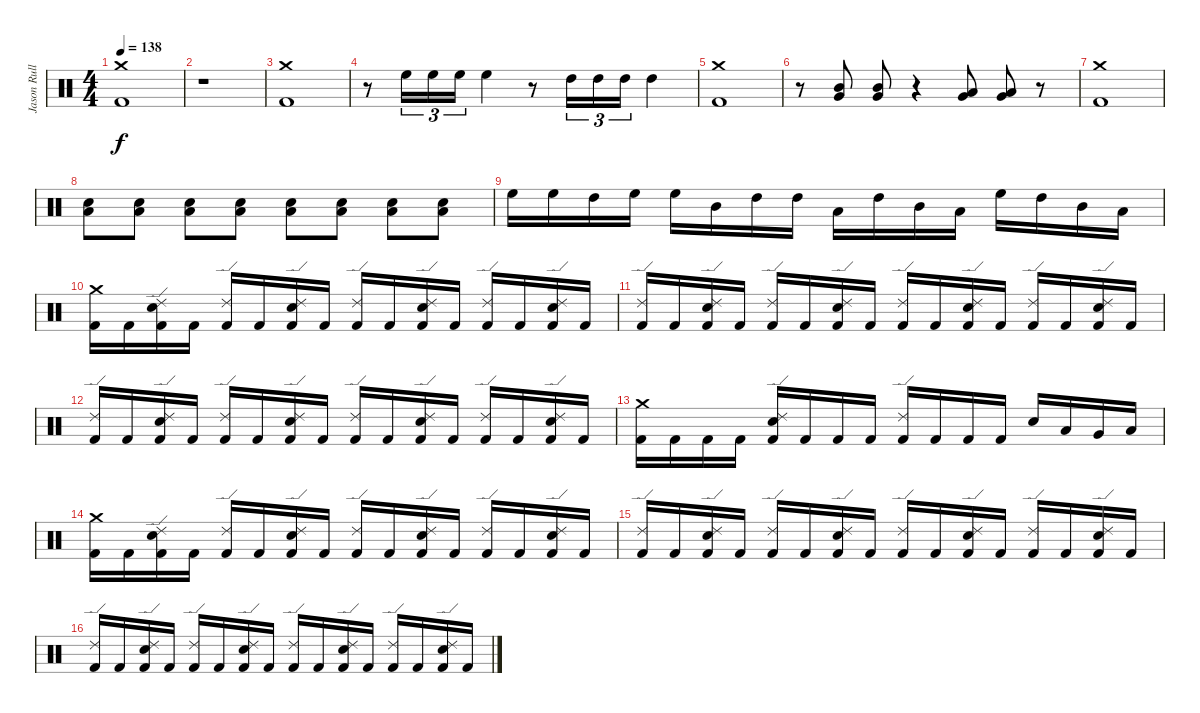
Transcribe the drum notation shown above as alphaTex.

\track ("Jason Rullo" "Jason Rull") {instrument percussion}
\staff {score}
\articulation defaults
\ts (4 4)
\tempo 138
\clef neutral
\ks c
("Crash medium (hit)" "Kick (hit) 2").1{dy f} |
r.1 |
("Crash medium (hit)" "Kick (hit) 2").1 |
r.8 "High Floor Tom (hit)".16{tu (3 2)} "High Floor Tom (hit)".16{tu (3 2)} "High Floor Tom (hit)".16{tu (3 2)} "High Floor Tom (hit)".4 r.8 "High Tom (hit)".16{tu (3 2)} "High Tom (hit)".16{tu (3 2)} "High Tom (hit)".16{tu (3 2)} "High Tom (hit)".4 |
("Crash medium (hit)" "Kick (hit) 2").1 |
r.8 ("Very Low Tom (hit)" "Mid Tom (hit)").8 ("Very Low Tom (hit)" "Mid Tom (hit)").8 r.4 ("Low Floor Tom (hit)" "Very Low Tom (hit)").8 ("Low Floor Tom (hit)" "Very Low Tom (hit)").8 r.8 |
("Crash medium (hit)" "Kick (hit) 2").1 |
("Low Tom (hit)" "Electric Snare (hit)").8{volume 4} ("Low Tom (hit)" "Electric Snare (hit)").8{volume 5} ("Low Tom (hit)" "Electric Snare (hit)").8{volume 7} ("Low Tom (hit)" "Electric Snare (hit)").8{volume 8} ("Low Tom (hit)" "Electric Snare (hit)").8{volume 10} ("Low Tom (hit)" "Electric Snare (hit)").8{volume 11} ("Low Tom (hit)" "Electric Snare (hit)").8{volume 13} ("Low Tom (hit)" "Electric Snare (hit)").8{volume 14} |
"High Floor Tom (hit)".16{volume 16} "High Floor Tom (hit)".16 "High Tom (hit)".16 "High Floor Tom (hit)".16 "High Floor Tom (hit)".16 "Mid Tom (hit)".16 "High Tom (hit)".16 "High Tom (hit)".16 "Low Tom (hit)".16 "High Tom (hit)".16 "Mid Tom (hit)".16 "Low Tom (hit)".16 "High Floor Tom (hit)".16 "High Tom (hit)".16 "Mid Tom (hit)".16 "Low Tom (hit)".16 |
("Crash medium (hit)" "Kick (hit) 2").16 "Kick (hit) 2".16 ("Ride (edge) 2" "Electric Snare (hit)" "Kick (hit) 2").16 "Kick (hit) 2".16 ("Ride (edge) 2" "Kick (hit) 2").16 "Kick (hit) 2".16 ("Ride (edge) 2" "Electric Snare (hit)" "Kick (hit) 2").16 "Kick (hit) 2".16 ("Ride (edge) 2" "Kick (hit) 2").16 "Kick (hit) 2".16 ("Ride (edge) 2" "Electric Snare (hit)" "Kick (hit) 2").16 "Kick (hit) 2".16 ("Ride (edge) 2" "Kick (hit) 2").16 "Kick (hit) 2".16 ("Ride (edge) 2" "Electric Snare (hit)" "Kick (hit) 2").16 "Kick (hit) 2".16 |
("Ride (edge) 2" "Kick (hit) 2").16 "Kick (hit) 2".16 ("Ride (edge) 2" "Electric Snare (hit)" "Kick (hit) 2").16 "Kick (hit) 2".16 ("Ride (edge) 2" "Kick (hit) 2").16 "Kick (hit) 2".16 ("Ride (edge) 2" "Electric Snare (hit)" "Kick (hit) 2").16 "Kick (hit) 2".16 ("Ride (edge) 2" "Kick (hit) 2").16 "Kick (hit) 2".16 ("Ride (edge) 2" "Electric Snare (hit)" "Kick (hit) 2").16 "Kick (hit) 2".16 ("Ride (edge) 2" "Kick (hit) 2").16 "Kick (hit) 2".16 ("Ride (edge) 2" "Electric Snare (hit)" "Kick (hit) 2").16 "Kick (hit) 2".16 |
("Ride (edge) 2" "Kick (hit) 2").16 "Kick (hit) 2".16 ("Ride (edge) 2" "Electric Snare (hit)" "Kick (hit) 2").16 "Kick (hit) 2".16 ("Ride (edge) 2" "Kick (hit) 2").16 "Kick (hit) 2".16 ("Ride (edge) 2" "Electric Snare (hit)" "Kick (hit) 2").16 "Kick (hit) 2".16 ("Ride (edge) 2" "Kick (hit) 2").16 "Kick (hit) 2".16 ("Ride (edge) 2" "Electric Snare (hit)" "Kick (hit) 2").16 "Kick (hit) 2".16 ("Ride (edge) 2" "Kick (hit) 2").16 "Kick (hit) 2".16 ("Ride (edge) 2" "Electric Snare (hit)" "Kick (hit) 2").16 "Kick (hit) 2".16 |
("Crash medium (hit)" "Kick (hit) 2").16 "Kick (hit) 2".16 "Kick (hit) 2".16 "Kick (hit) 2".16 ("Ride (edge) 2" "Electric Snare (hit)" "Kick (hit) 2").16 "Kick (hit) 2".16 "Kick (hit) 2".16 "Kick (hit) 2".16 ("Ride (edge) 2" "Kick (hit) 2").16 "Kick (hit) 2".16 "Kick (hit) 2".16 "Kick (hit) 2".16 "Electric Snare (hit)".16 "Low Tom (hit)".16 "Very Low Tom (hit)".16 "Low Floor Tom (hit)".16 |
("Crash medium (hit)" "Kick (hit) 2").16 "Kick (hit) 2".16 ("Ride (edge) 2" "Electric Snare (hit)" "Kick (hit) 2").16 "Kick (hit) 2".16 ("Ride (edge) 2" "Kick (hit) 2").16 "Kick (hit) 2".16 ("Ride (edge) 2" "Electric Snare (hit)" "Kick (hit) 2").16 "Kick (hit) 2".16 ("Ride (edge) 2" "Kick (hit) 2").16 "Kick (hit) 2".16 ("Ride (edge) 2" "Electric Snare (hit)" "Kick (hit) 2").16 "Kick (hit) 2".16 ("Ride (edge) 2" "Kick (hit) 2").16 "Kick (hit) 2".16 ("Ride (edge) 2" "Electric Snare (hit)" "Kick (hit) 2").16 "Kick (hit) 2".16 |
("Ride (edge) 2" "Kick (hit) 2").16 "Kick (hit) 2".16 ("Ride (edge) 2" "Electric Snare (hit)" "Kick (hit) 2").16 "Kick (hit) 2".16 ("Ride (edge) 2" "Kick (hit) 2").16 "Kick (hit) 2".16 ("Ride (edge) 2" "Electric Snare (hit)" "Kick (hit) 2").16 "Kick (hit) 2".16 ("Ride (edge) 2" "Kick (hit) 2").16 "Kick (hit) 2".16 ("Ride (edge) 2" "Electric Snare (hit)" "Kick (hit) 2").16 "Kick (hit) 2".16 ("Ride (edge) 2" "Kick (hit) 2").16 "Kick (hit) 2".16 ("Ride (edge) 2" "Electric Snare (hit)" "Kick (hit) 2").16 "Kick (hit) 2".16 |
("Ride (edge) 2" "Kick (hit) 2").16 "Kick (hit) 2".16 ("Ride (edge) 2" "Electric Snare (hit)" "Kick (hit) 2").16 "Kick (hit) 2".16 ("Ride (edge) 2" "Kick (hit) 2").16 "Kick (hit) 2".16 ("Ride (edge) 2" "Electric Snare (hit)" "Kick (hit) 2").16 "Kick (hit) 2".16 ("Ride (edge) 2" "Kick (hit) 2").16 "Kick (hit) 2".16 ("Ride (edge) 2" "Electric Snare (hit)" "Kick (hit) 2").16 "Kick (hit) 2".16 ("Ride (edge) 2" "Kick (hit) 2").16 "Kick (hit) 2".16 ("Ride (edge) 2" "Electric Snare (hit)" "Kick (hit) 2").16 "Kick (hit) 2".16
